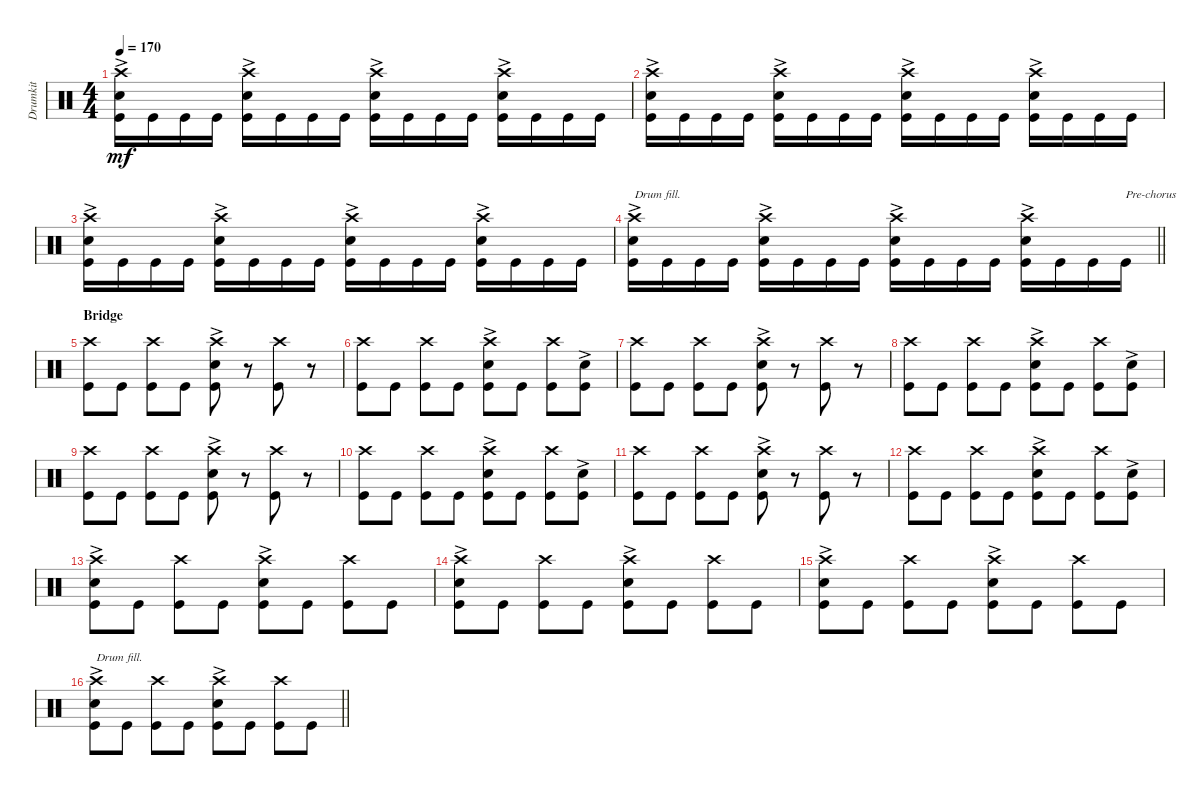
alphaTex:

\track ("Drumkit" "Drumkit") {instrument percussion}
\staff {score}
\articulation defaults
\ts (4 4)
\tempo 170
\clef neutral
\ks c
("Snare (hit) 2"{ac} "Kick (hit)" "Crash high (hit)").16{dy mf} "Kick (hit)".16 "Kick (hit)".16 "Kick (hit)".16 ("Snare (hit) 2"{ac} "Kick (hit)" "Crash high (hit)").16 "Kick (hit)".16 "Kick (hit)".16 "Kick (hit)".16 ("Snare (hit) 2"{ac} "Kick (hit)" "Crash high (hit)").16 "Kick (hit)".16 "Kick (hit)".16 "Kick (hit)".16 ("Snare (hit) 2"{ac} "Kick (hit)" "Crash high (hit)").16 "Kick (hit)".16 "Kick (hit)".16 "Kick (hit)".16 |
("Snare (hit) 2"{ac} "Kick (hit)" "Crash high (hit)").16 "Kick (hit)".16 "Kick (hit)".16 "Kick (hit)".16 ("Snare (hit) 2"{ac} "Kick (hit)" "Crash high (hit)").16 "Kick (hit)".16 "Kick (hit)".16 "Kick (hit)".16 ("Snare (hit) 2"{ac} "Kick (hit)" "Crash high (hit)").16 "Kick (hit)".16 "Kick (hit)".16 "Kick (hit)".16 ("Snare (hit) 2"{ac} "Kick (hit)" "Crash high (hit)").16 "Kick (hit)".16 "Kick (hit)".16 "Kick (hit)".16 |
("Snare (hit) 2"{ac} "Kick (hit)" "Crash high (hit)").16 "Kick (hit)".16 "Kick (hit)".16 "Kick (hit)".16 ("Snare (hit) 2"{ac} "Kick (hit)" "Crash high (hit)").16 "Kick (hit)".16 "Kick (hit)".16 "Kick (hit)".16 ("Snare (hit) 2"{ac} "Kick (hit)" "Crash high (hit)").16 "Kick (hit)".16 "Kick (hit)".16 "Kick (hit)".16 ("Snare (hit) 2"{ac} "Kick (hit)" "Crash high (hit)").16 "Kick (hit)".16 "Kick (hit)".16 "Kick (hit)".16 |
\barLineRight lightlight
("Snare (hit) 2"{ac} "Kick (hit)" "Crash high (hit)").16{txt "Drum fill."} "Kick (hit)".16 "Kick (hit)".16 "Kick (hit)".16 ("Snare (hit) 2"{ac} "Kick (hit)" "Crash high (hit)").16 "Kick (hit)".16 "Kick (hit)".16 "Kick (hit)".16 ("Snare (hit) 2"{ac} "Kick (hit)" "Crash high (hit)").16 "Kick (hit)".16 "Kick (hit)".16 "Kick (hit)".16 ("Snare (hit) 2"{ac} "Kick (hit)" "Crash high (hit)").16 "Kick (hit)".16 "Kick (hit)".16 "Kick (hit)".16{txt "Pre-chorus"} |
\section ("" "Bridge")
("Kick (hit)" "Crash high (hit)").8 "Kick (hit)".8 ("Kick (hit)" "Crash high (hit)").8 "Kick (hit)".8 ("Kick (hit)" "Snare (hit) 2"{ac} "Crash high (hit)").8 r.8 ("Kick (hit)" "Crash high (hit)").8 r.8 |
("Kick (hit)" "Crash high (hit)").8 "Kick (hit)".8 ("Kick (hit)" "Crash high (hit)").8 "Kick (hit)".8 ("Kick (hit)" "Snare (hit) 2"{ac} "Crash high (hit)").8 "Kick (hit)".8 ("Kick (hit)" "Crash high (hit)").8 ("Kick (hit)" "Snare (hit) 2"{ac}).8 |
("Kick (hit)" "Crash high (hit)").8 "Kick (hit)".8 ("Kick (hit)" "Crash high (hit)").8 "Kick (hit)".8 ("Kick (hit)" "Snare (hit) 2"{ac} "Crash high (hit)").8 r.8 ("Kick (hit)" "Crash high (hit)").8 r.8 |
("Kick (hit)" "Crash high (hit)").8 "Kick (hit)".8 ("Kick (hit)" "Crash high (hit)").8 "Kick (hit)".8 ("Kick (hit)" "Snare (hit) 2"{ac} "Crash high (hit)").8 "Kick (hit)".8 ("Kick (hit)" "Crash high (hit)").8 ("Kick (hit)" "Snare (hit) 2"{ac}).8 |
("Kick (hit)" "Crash high (hit)").8 "Kick (hit)".8 ("Kick (hit)" "Crash high (hit)").8 "Kick (hit)".8 ("Kick (hit)" "Snare (hit) 2"{ac} "Crash high (hit)").8 r.8 ("Kick (hit)" "Crash high (hit)").8 r.8 |
("Kick (hit)" "Crash high (hit)").8 "Kick (hit)".8 ("Kick (hit)" "Crash high (hit)").8 "Kick (hit)".8 ("Kick (hit)" "Snare (hit) 2"{ac} "Crash high (hit)").8 "Kick (hit)".8 ("Kick (hit)" "Crash high (hit)").8 ("Kick (hit)" "Snare (hit) 2"{ac}).8 |
("Kick (hit)" "Crash high (hit)").8 "Kick (hit)".8 ("Kick (hit)" "Crash high (hit)").8 "Kick (hit)".8 ("Kick (hit)" "Snare (hit) 2"{ac} "Crash high (hit)").8 r.8 ("Kick (hit)" "Crash high (hit)").8 r.8 |
("Kick (hit)" "Crash high (hit)").8 "Kick (hit)".8 ("Kick (hit)" "Crash high (hit)").8 "Kick (hit)".8 ("Kick (hit)" "Snare (hit) 2"{ac} "Crash high (hit)").8 "Kick (hit)".8 ("Kick (hit)" "Crash high (hit)").8 ("Kick (hit)" "Snare (hit) 2"{ac}).8 |
("Kick (hit)" "Snare (hit) 2"{ac} "Crash high (hit)").8 "Kick (hit)".8 ("Kick (hit)" "Crash high (hit)").8 "Kick (hit)".8 ("Kick (hit)" "Snare (hit) 2"{ac} "Crash high (hit)").8 "Kick (hit)".8 ("Kick (hit)" "Crash high (hit)").8 "Kick (hit)".8 |
("Kick (hit)" "Snare (hit) 2"{ac} "Crash high (hit)").8 "Kick (hit)".8 ("Kick (hit)" "Crash high (hit)").8 "Kick (hit)".8 ("Kick (hit)" "Snare (hit) 2"{ac} "Crash high (hit)").8 "Kick (hit)".8 ("Kick (hit)" "Crash high (hit)").8 "Kick (hit)".8 |
("Kick (hit)" "Snare (hit) 2"{ac} "Crash high (hit)").8 "Kick (hit)".8 ("Kick (hit)" "Crash high (hit)").8 "Kick (hit)".8 ("Kick (hit)" "Snare (hit) 2"{ac} "Crash high (hit)").8 "Kick (hit)".8 ("Kick (hit)" "Crash high (hit)").8 "Kick (hit)".8 |
\barLineRight lightlight
("Kick (hit)" "Snare (hit) 2"{ac} "Crash high (hit)").8{txt "Drum fill."} "Kick (hit)".8 ("Kick (hit)" "Crash high (hit)").8 "Kick (hit)".8 ("Kick (hit)" "Snare (hit) 2"{ac} "Crash high (hit)").8 "Kick (hit)".8 ("Kick (hit)" "Crash high (hit)").8 "Kick (hit)".8
